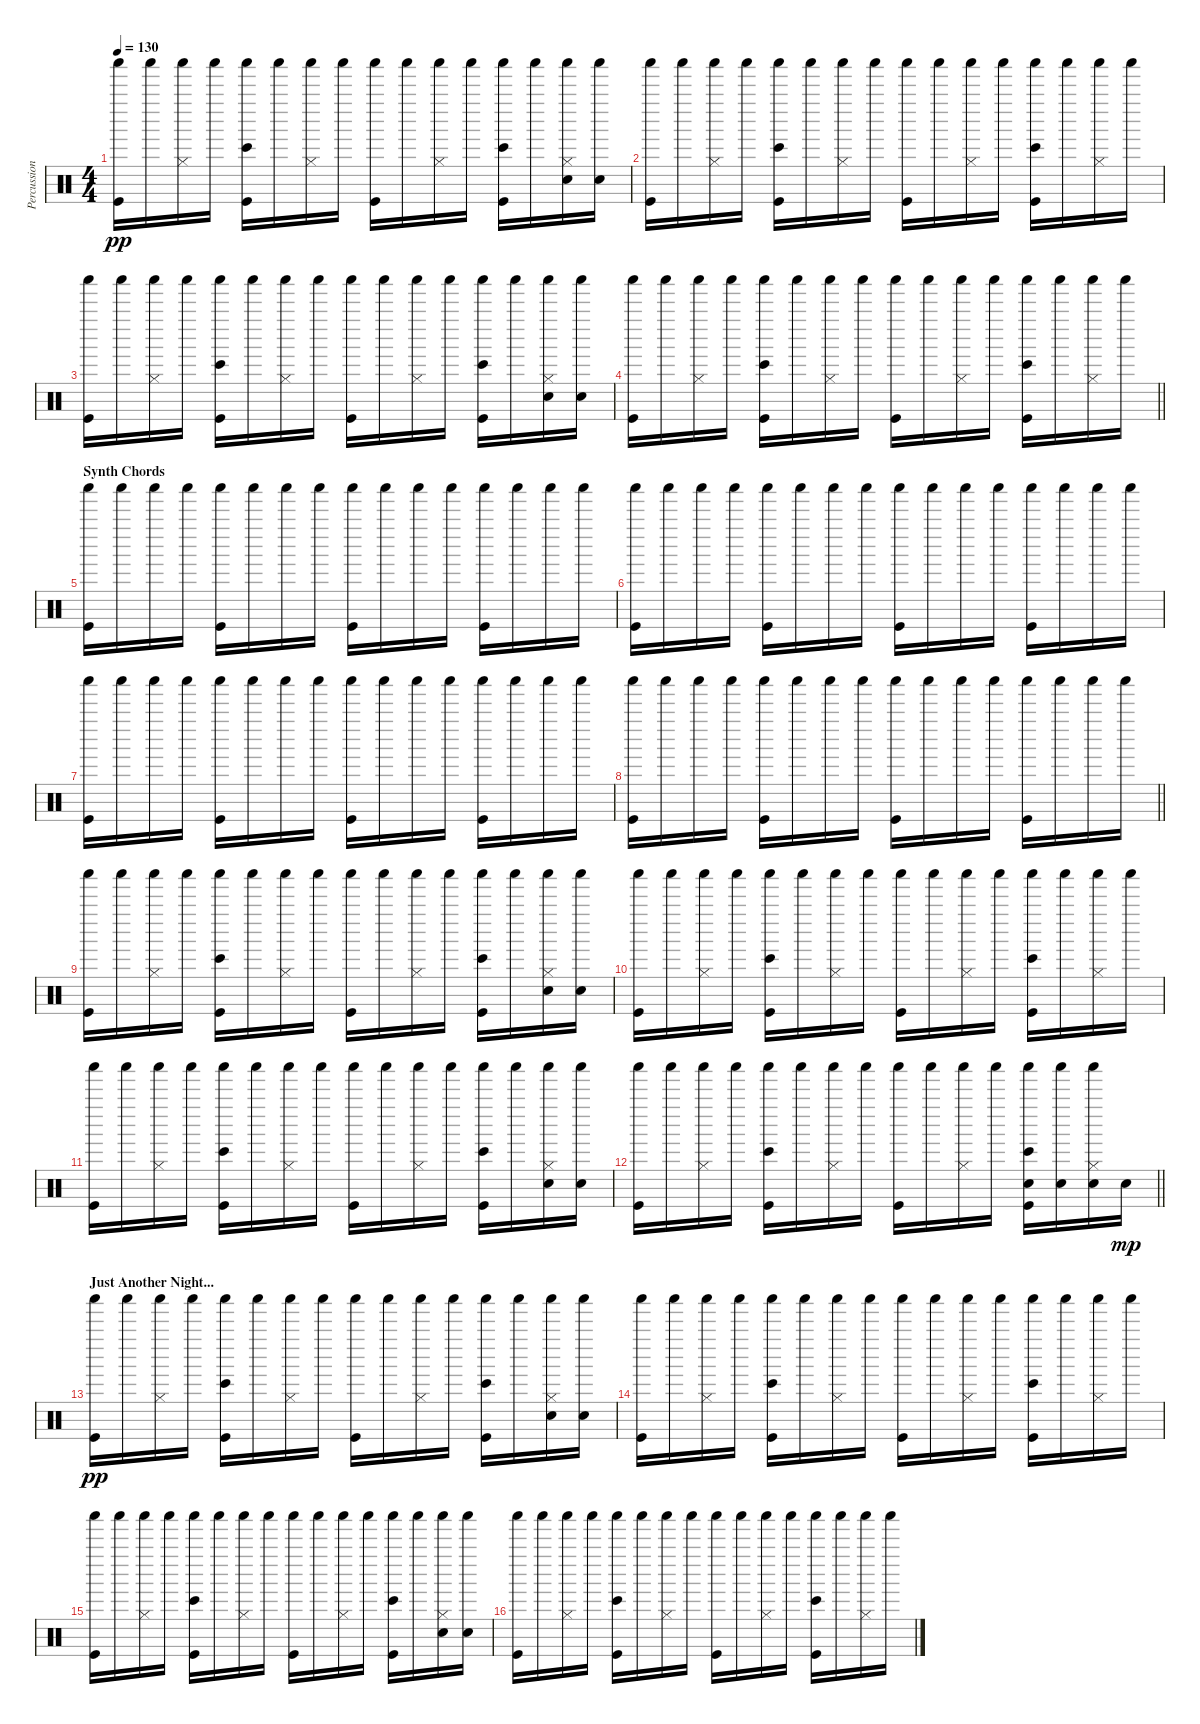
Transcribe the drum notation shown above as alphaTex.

\track ("Percussion" "Percussion") {instrument percussion}
\staff {score}
\articulation defaults
\ts (4 4)
\tempo 130
\clef neutral
\ks c
("Kick (hit)" "Shaker (hit)").16{dy pp} "Shaker (hit)".16 ("Hi-Hat (closed)" "Shaker (hit)").16 "Shaker (hit)".16 ("Kick (hit)" "Bongo High (hit)" "Shaker (hit)").16 "Shaker (hit)".16 ("Hi-Hat (closed)" "Shaker (hit)").16 "Shaker (hit)".16 ("Kick (hit)" "Shaker (hit)").16 "Shaker (hit)".16 ("Hi-Hat (closed)" "Shaker (hit)").16 "Shaker (hit)".16 ("Kick (hit)" "Bongo High (hit)" "Shaker (hit)").16 "Shaker (hit)".16 ("Electric Snare (hit)" "Hi-Hat (closed)" "Shaker (hit)").16 ("Electric Snare (hit)" "Shaker (hit)").16 |
("Kick (hit)" "Shaker (hit)").16 "Shaker (hit)".16 ("Hi-Hat (closed)" "Shaker (hit)").16 "Shaker (hit)".16 ("Kick (hit)" "Bongo High (hit)" "Shaker (hit)").16 "Shaker (hit)".16 ("Hi-Hat (closed)" "Shaker (hit)").16 "Shaker (hit)".16 ("Kick (hit)" "Shaker (hit)").16 "Shaker (hit)".16 ("Hi-Hat (closed)" "Shaker (hit)").16 "Shaker (hit)".16 ("Kick (hit)" "Bongo High (hit)" "Shaker (hit)").16 "Shaker (hit)".16 ("Hi-Hat (closed)" "Shaker (hit)").16 "Shaker (hit)".16 |
("Kick (hit)" "Shaker (hit)").16 "Shaker (hit)".16 ("Hi-Hat (closed)" "Shaker (hit)").16 "Shaker (hit)".16 ("Kick (hit)" "Bongo High (hit)" "Shaker (hit)").16 "Shaker (hit)".16 ("Hi-Hat (closed)" "Shaker (hit)").16 "Shaker (hit)".16 ("Kick (hit)" "Shaker (hit)").16 "Shaker (hit)".16 ("Hi-Hat (closed)" "Shaker (hit)").16 "Shaker (hit)".16 ("Kick (hit)" "Bongo High (hit)" "Shaker (hit)").16 "Shaker (hit)".16 ("Electric Snare (hit)" "Hi-Hat (closed)" "Shaker (hit)").16 ("Electric Snare (hit)" "Shaker (hit)").16 |
\barLineRight lightlight
("Kick (hit)" "Shaker (hit)").16 "Shaker (hit)".16 ("Hi-Hat (closed)" "Shaker (hit)").16 "Shaker (hit)".16 ("Kick (hit)" "Bongo High (hit)" "Shaker (hit)").16 "Shaker (hit)".16 ("Hi-Hat (closed)" "Shaker (hit)").16 "Shaker (hit)".16 ("Kick (hit)" "Shaker (hit)").16 "Shaker (hit)".16 ("Hi-Hat (closed)" "Shaker (hit)").16 "Shaker (hit)".16 ("Kick (hit)" "Bongo High (hit)" "Shaker (hit)").16 "Shaker (hit)".16 ("Hi-Hat (closed)" "Shaker (hit)").16 "Shaker (hit)".16 |
\section ("" "Synth Chords")
("Kick (hit)" "Shaker (hit)").16 "Shaker (hit)".16 "Shaker (hit)".16 "Shaker (hit)".16 ("Kick (hit)" "Shaker (hit)").16 "Shaker (hit)".16 "Shaker (hit)".16 "Shaker (hit)".16 ("Kick (hit)" "Shaker (hit)").16 "Shaker (hit)".16 "Shaker (hit)".16 "Shaker (hit)".16 ("Kick (hit)" "Shaker (hit)").16 "Shaker (hit)".16 "Shaker (hit)".16 "Shaker (hit)".16 |
("Kick (hit)" "Shaker (hit)").16 "Shaker (hit)".16 "Shaker (hit)".16 "Shaker (hit)".16 ("Kick (hit)" "Shaker (hit)").16 "Shaker (hit)".16 "Shaker (hit)".16 "Shaker (hit)".16 ("Kick (hit)" "Shaker (hit)").16 "Shaker (hit)".16 "Shaker (hit)".16 "Shaker (hit)".16 ("Kick (hit)" "Shaker (hit)").16 "Shaker (hit)".16 "Shaker (hit)".16 "Shaker (hit)".16 |
("Kick (hit)" "Shaker (hit)").16 "Shaker (hit)".16 "Shaker (hit)".16 "Shaker (hit)".16 ("Kick (hit)" "Shaker (hit)").16 "Shaker (hit)".16 "Shaker (hit)".16 "Shaker (hit)".16 ("Kick (hit)" "Shaker (hit)").16 "Shaker (hit)".16 "Shaker (hit)".16 "Shaker (hit)".16 ("Kick (hit)" "Shaker (hit)").16 "Shaker (hit)".16 "Shaker (hit)".16 "Shaker (hit)".16 |
\barLineRight lightlight
("Kick (hit)" "Shaker (hit)").16 "Shaker (hit)".16 "Shaker (hit)".16 "Shaker (hit)".16 ("Kick (hit)" "Shaker (hit)").16 "Shaker (hit)".16 "Shaker (hit)".16 "Shaker (hit)".16 ("Kick (hit)" "Shaker (hit)").16 "Shaker (hit)".16 "Shaker (hit)".16 "Shaker (hit)".16 ("Kick (hit)" "Shaker (hit)").16 "Shaker (hit)".16 "Shaker (hit)".16 "Shaker (hit)".16 |
("Kick (hit)" "Shaker (hit)").16 "Shaker (hit)".16 ("Hi-Hat (closed)" "Shaker (hit)").16 "Shaker (hit)".16 ("Kick (hit)" "Bongo High (hit)" "Shaker (hit)").16 "Shaker (hit)".16 ("Hi-Hat (closed)" "Shaker (hit)").16 "Shaker (hit)".16 ("Kick (hit)" "Shaker (hit)").16 "Shaker (hit)".16 ("Hi-Hat (closed)" "Shaker (hit)").16 "Shaker (hit)".16 ("Kick (hit)" "Bongo High (hit)" "Shaker (hit)").16 "Shaker (hit)".16 ("Electric Snare (hit)" "Hi-Hat (closed)" "Shaker (hit)").16 ("Electric Snare (hit)" "Shaker (hit)").16 |
("Kick (hit)" "Shaker (hit)").16 "Shaker (hit)".16 ("Hi-Hat (closed)" "Shaker (hit)").16 "Shaker (hit)".16 ("Kick (hit)" "Bongo High (hit)" "Shaker (hit)").16 "Shaker (hit)".16 ("Hi-Hat (closed)" "Shaker (hit)").16 "Shaker (hit)".16 ("Kick (hit)" "Shaker (hit)").16 "Shaker (hit)".16 ("Hi-Hat (closed)" "Shaker (hit)").16 "Shaker (hit)".16 ("Kick (hit)" "Bongo High (hit)" "Shaker (hit)").16 "Shaker (hit)".16 ("Hi-Hat (closed)" "Shaker (hit)").16 "Shaker (hit)".16 |
("Kick (hit)" "Shaker (hit)").16 "Shaker (hit)".16 ("Hi-Hat (closed)" "Shaker (hit)").16 "Shaker (hit)".16 ("Kick (hit)" "Bongo High (hit)" "Shaker (hit)").16 "Shaker (hit)".16 ("Hi-Hat (closed)" "Shaker (hit)").16 "Shaker (hit)".16 ("Kick (hit)" "Shaker (hit)").16 "Shaker (hit)".16 ("Hi-Hat (closed)" "Shaker (hit)").16 "Shaker (hit)".16 ("Kick (hit)" "Bongo High (hit)" "Shaker (hit)").16 "Shaker (hit)".16 ("Electric Snare (hit)" "Hi-Hat (closed)" "Shaker (hit)").16 ("Electric Snare (hit)" "Shaker (hit)").16 |
\barLineRight lightlight
("Kick (hit)" "Shaker (hit)").16 "Shaker (hit)".16 ("Hi-Hat (closed)" "Shaker (hit)").16 "Shaker (hit)".16 ("Kick (hit)" "Bongo High (hit)" "Shaker (hit)").16 "Shaker (hit)".16 ("Hi-Hat (closed)" "Shaker (hit)").16 "Shaker (hit)".16 ("Kick (hit)" "Shaker (hit)").16 "Shaker (hit)".16 ("Hi-Hat (closed)" "Shaker (hit)").16 "Shaker (hit)".16 ("Kick (hit)" "Bongo High (hit)" "Electric Snare (hit)" "Shaker (hit)").16 ("Electric Snare (hit)" "Shaker (hit)").16 ("Electric Snare (hit)" "Hi-Hat (closed)" "Shaker (hit)").16 "Electric Snare (hit)".16{dy mp} |
\section ("" "Just Another Night...")
("Kick (hit)" "Shaker (hit)").16{dy pp} "Shaker (hit)".16 ("Hi-Hat (closed)" "Shaker (hit)").16 "Shaker (hit)".16 ("Kick (hit)" "Bongo High (hit)" "Shaker (hit)").16 "Shaker (hit)".16 ("Hi-Hat (closed)" "Shaker (hit)").16 "Shaker (hit)".16 ("Kick (hit)" "Shaker (hit)").16 "Shaker (hit)".16 ("Hi-Hat (closed)" "Shaker (hit)").16 "Shaker (hit)".16 ("Kick (hit)" "Bongo High (hit)" "Shaker (hit)").16 "Shaker (hit)".16 ("Electric Snare (hit)" "Hi-Hat (closed)" "Shaker (hit)").16 ("Electric Snare (hit)" "Shaker (hit)").16 |
("Kick (hit)" "Shaker (hit)").16 "Shaker (hit)".16 ("Hi-Hat (closed)" "Shaker (hit)").16 "Shaker (hit)".16 ("Kick (hit)" "Bongo High (hit)" "Shaker (hit)").16 "Shaker (hit)".16 ("Hi-Hat (closed)" "Shaker (hit)").16 "Shaker (hit)".16 ("Kick (hit)" "Shaker (hit)").16 "Shaker (hit)".16 ("Hi-Hat (closed)" "Shaker (hit)").16 "Shaker (hit)".16 ("Kick (hit)" "Bongo High (hit)" "Shaker (hit)").16 "Shaker (hit)".16 ("Hi-Hat (closed)" "Shaker (hit)").16 "Shaker (hit)".16 |
("Kick (hit)" "Shaker (hit)").16 "Shaker (hit)".16 ("Hi-Hat (closed)" "Shaker (hit)").16 "Shaker (hit)".16 ("Kick (hit)" "Bongo High (hit)" "Shaker (hit)").16 "Shaker (hit)".16 ("Hi-Hat (closed)" "Shaker (hit)").16 "Shaker (hit)".16 ("Kick (hit)" "Shaker (hit)").16 "Shaker (hit)".16 ("Hi-Hat (closed)" "Shaker (hit)").16 "Shaker (hit)".16 ("Kick (hit)" "Bongo High (hit)" "Shaker (hit)").16 "Shaker (hit)".16 ("Electric Snare (hit)" "Hi-Hat (closed)" "Shaker (hit)").16 ("Electric Snare (hit)" "Shaker (hit)").16 |
("Kick (hit)" "Shaker (hit)").16 "Shaker (hit)".16 ("Hi-Hat (closed)" "Shaker (hit)").16 "Shaker (hit)".16 ("Kick (hit)" "Bongo High (hit)" "Shaker (hit)").16 "Shaker (hit)".16 ("Hi-Hat (closed)" "Shaker (hit)").16 "Shaker (hit)".16 ("Kick (hit)" "Shaker (hit)").16 "Shaker (hit)".16 ("Hi-Hat (closed)" "Shaker (hit)").16 "Shaker (hit)".16 ("Kick (hit)" "Bongo High (hit)" "Shaker (hit)").16 "Shaker (hit)".16 ("Hi-Hat (closed)" "Shaker (hit)").16 "Shaker (hit)".16
